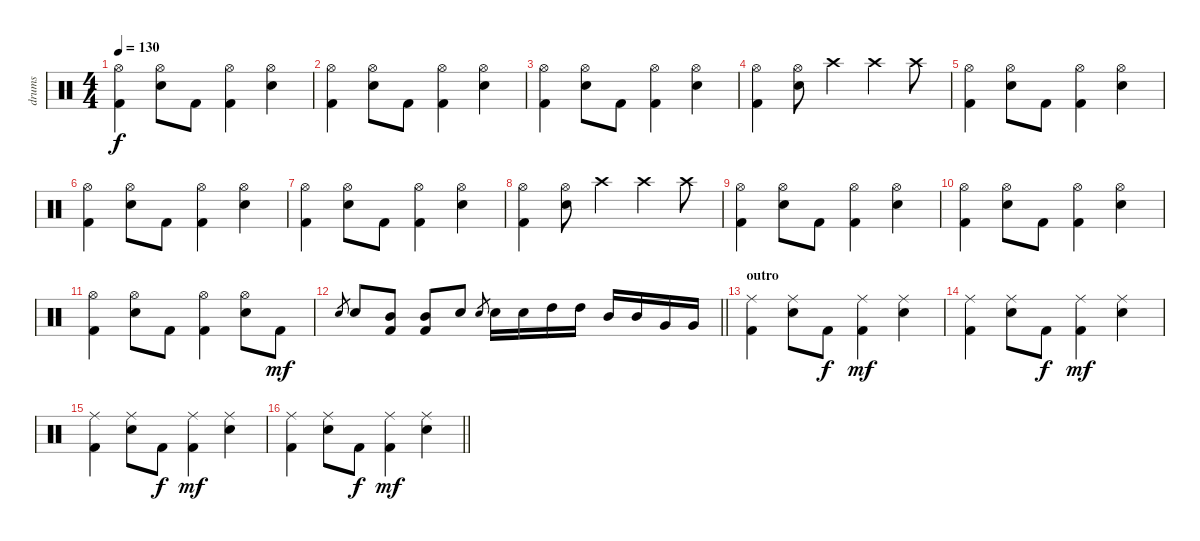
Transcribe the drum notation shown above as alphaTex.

\track ("drums" "drums") {instrument percussion}
\staff {score}
\articulation defaults
\ts (4 4)
\tempo 130
\clef neutral
\ks c
("Hi-Hat (open)" "Kick (hit) 2").4{dy f} ("Hi-Hat (open)" "Snare (hit) 2").8 "Kick (hit) 2".8 ("Hi-Hat (open)" "Kick (hit) 2").4 ("Hi-Hat (open)" "Snare (hit) 2").4 |
("Hi-Hat (open)" "Kick (hit) 2").4 ("Hi-Hat (open)" "Snare (hit) 2").8 "Kick (hit) 2".8 ("Hi-Hat (open)" "Kick (hit) 2").4 ("Hi-Hat (open)" "Snare (hit) 2").4 |
("Hi-Hat (open)" "Kick (hit) 2").4 ("Hi-Hat (open)" "Snare (hit) 2").8 "Kick (hit) 2".8 ("Hi-Hat (open)" "Kick (hit) 2").4 ("Hi-Hat (open)" "Snare (hit) 2").4 |
("Hi-Hat (open)" "Kick (hit) 2").4 ("Hi-Hat (open)" "Snare (hit) 2").8 "Crash high (hit)".4 "Crash high (hit)".4 "Crash high (hit)".8 |
("Hi-Hat (open)" "Kick (hit) 2").4 ("Hi-Hat (open)" "Snare (hit) 2").8 "Kick (hit) 2".8 ("Hi-Hat (open)" "Kick (hit) 2").4 ("Hi-Hat (open)" "Snare (hit) 2").4 |
("Hi-Hat (open)" "Kick (hit) 2").4 ("Hi-Hat (open)" "Snare (hit) 2").8 "Kick (hit) 2".8 ("Hi-Hat (open)" "Kick (hit) 2").4 ("Hi-Hat (open)" "Snare (hit) 2").4 |
("Hi-Hat (open)" "Kick (hit) 2").4 ("Hi-Hat (open)" "Snare (hit) 2").8 "Kick (hit) 2".8 ("Hi-Hat (open)" "Kick (hit) 2").4 ("Hi-Hat (open)" "Snare (hit) 2").4 |
("Hi-Hat (open)" "Kick (hit) 2").4 ("Hi-Hat (open)" "Snare (hit) 2").8 "Crash high (hit)".4 "Crash high (hit)".4 "Crash high (hit)".8 |
("Hi-Hat (open)" "Kick (hit) 2").4 ("Hi-Hat (open)" "Snare (hit) 2").8 "Kick (hit) 2".8 ("Hi-Hat (open)" "Kick (hit) 2").4 ("Hi-Hat (open)" "Snare (hit) 2").4 |
("Hi-Hat (open)" "Kick (hit) 2").4 ("Hi-Hat (open)" "Snare (hit) 2").8 "Kick (hit) 2".8 ("Hi-Hat (open)" "Kick (hit) 2").4 ("Hi-Hat (open)" "Snare (hit) 2").4 |
("Hi-Hat (open)" "Kick (hit) 2").4 ("Hi-Hat (open)" "Snare (hit) 2").8 "Kick (hit) 2".8 ("Hi-Hat (open)" "Kick (hit) 2").4 ("Hi-Hat (open)" "Snare (hit) 2").8 "Kick (hit) 2".8{dy mf} |
\barLineRight lightlight "Snare (hit) 2".8{gr} "Snare (hit) 2".8
("Kick (hit) 2" "Mid Tom (hit)").8 ("Kick (hit) 2" "Mid Tom (hit)").8 "Snare (hit) 2".8 "Snare (hit) 2".8{gr} "Snare (hit) 2".16 "Snare (hit) 2".16 "High Tom (hit)".16 "High Tom (hit)".16 "Mid Tom (hit)".16 "Mid Tom (hit)".16 "Very Low Tom (hit)".16 "Very Low Tom (hit)".16 |
\section ("" "outro")
("Ride (middle)" "Kick (hit) 2").4 ("Ride (middle)" "Snare (hit) 2").8 "Kick (hit) 2".8{dy f} ("Ride (middle)" "Kick (hit) 2").4{dy mf} ("Ride (middle)" "Snare (hit) 2").4 |
("Ride (middle)" "Kick (hit) 2").4 ("Ride (middle)" "Snare (hit) 2").8 "Kick (hit) 2".8{dy f} ("Ride (middle)" "Kick (hit) 2").4{dy mf} ("Ride (middle)" "Snare (hit) 2").4 |
("Ride (middle)" "Kick (hit) 2").4 ("Ride (middle)" "Snare (hit) 2").8 "Kick (hit) 2".8{dy f} ("Ride (middle)" "Kick (hit) 2").4{dy mf} ("Ride (middle)" "Snare (hit) 2").4 |
\barLineRight lightlight
("Ride (middle)" "Kick (hit) 2").4 ("Ride (middle)" "Snare (hit) 2").8 "Kick (hit) 2".8{dy f} ("Ride (middle)" "Kick (hit) 2").4{dy mf} ("Ride (middle)" "Snare (hit) 2").4
